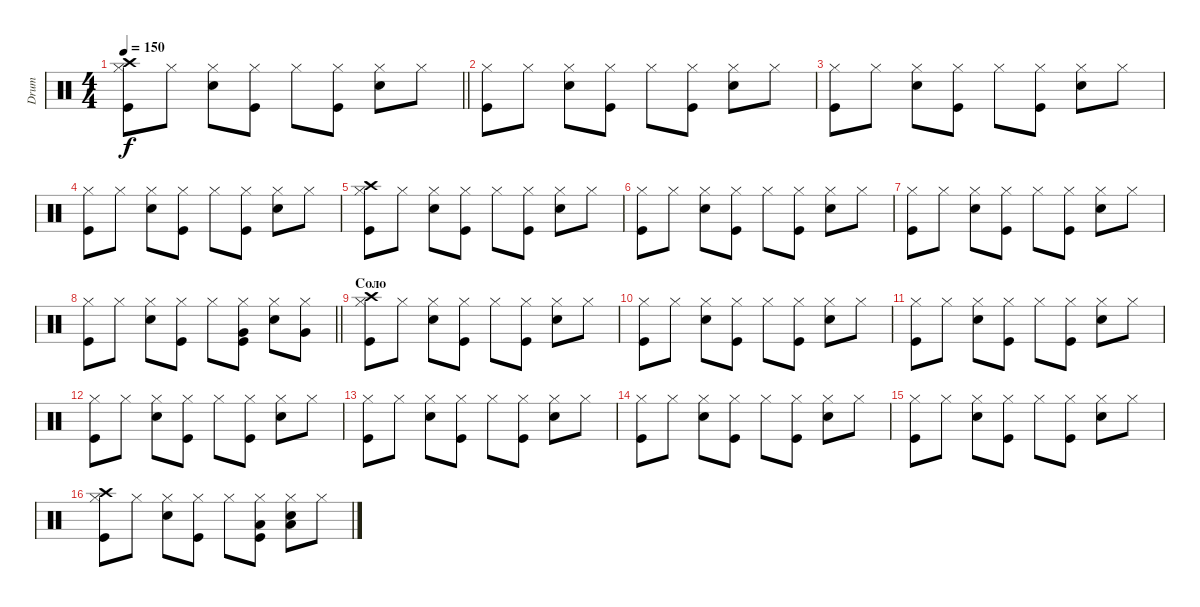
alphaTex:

\track ("Drum" "Drum") {instrument percussion}
\staff {score}
\articulation defaults
\ts (4 4)
\tempo 150
\clef neutral
\barLineRight lightlight
\ks c
("Kick (hit)" "Hi-Hat (closed)" "Crash high (hit)").8{dy f} "Hi-Hat (closed)".8 ("Snare (hit) 2" "Hi-Hat (closed)").8 ("Kick (hit)" "Hi-Hat (closed)").8 "Hi-Hat (closed)".8 ("Kick (hit)" "Hi-Hat (closed)").8 ("Snare (hit) 2" "Hi-Hat (closed)").8 "Hi-Hat (closed)".8 |
("Kick (hit)" "Hi-Hat (closed)").8 "Hi-Hat (closed)".8 ("Snare (hit) 2" "Hi-Hat (closed)").8 ("Kick (hit)" "Hi-Hat (closed)").8 "Hi-Hat (closed)".8 ("Kick (hit)" "Hi-Hat (closed)").8 ("Snare (hit) 2" "Hi-Hat (closed)").8 "Hi-Hat (closed)".8 |
("Kick (hit)" "Hi-Hat (closed)").8 "Hi-Hat (closed)".8 ("Snare (hit) 2" "Hi-Hat (closed)").8 ("Kick (hit)" "Hi-Hat (closed)").8 "Hi-Hat (closed)".8 ("Kick (hit)" "Hi-Hat (closed)").8 ("Snare (hit) 2" "Hi-Hat (closed)").8 "Hi-Hat (closed)".8 |
("Kick (hit)" "Hi-Hat (closed)").8 "Hi-Hat (closed)".8 ("Snare (hit) 2" "Hi-Hat (closed)").8 ("Kick (hit)" "Hi-Hat (closed)").8 "Hi-Hat (closed)".8 ("Kick (hit)" "Hi-Hat (closed)").8 ("Snare (hit) 2" "Hi-Hat (closed)").8 "Hi-Hat (closed)".8 |
("Kick (hit)" "Hi-Hat (closed)" "Crash high (hit)").8 "Hi-Hat (closed)".8 ("Snare (hit) 2" "Hi-Hat (closed)").8 ("Kick (hit)" "Hi-Hat (closed)").8 "Hi-Hat (closed)".8 ("Kick (hit)" "Hi-Hat (closed)").8 ("Snare (hit) 2" "Hi-Hat (closed)").8 "Hi-Hat (closed)".8 |
("Kick (hit)" "Hi-Hat (closed)").8 "Hi-Hat (closed)".8 ("Snare (hit) 2" "Hi-Hat (closed)").8 ("Kick (hit)" "Hi-Hat (closed)").8 "Hi-Hat (closed)".8 ("Kick (hit)" "Hi-Hat (closed)").8 ("Snare (hit) 2" "Hi-Hat (closed)").8 "Hi-Hat (closed)".8 |
("Kick (hit)" "Hi-Hat (closed)").8 "Hi-Hat (closed)".8 ("Snare (hit) 2" "Hi-Hat (closed)").8 ("Kick (hit)" "Hi-Hat (closed)").8 "Hi-Hat (closed)".8 ("Kick (hit)" "Hi-Hat (closed)").8 ("Snare (hit) 2" "Hi-Hat (closed)").8 "Hi-Hat (closed)".8 |
\barLineRight lightlight
("Kick (hit)" "Hi-Hat (closed)").8 "Hi-Hat (closed)".8 ("Snare (hit) 2" "Hi-Hat (closed)").8 ("Kick (hit)" "Hi-Hat (closed)").8 "Hi-Hat (closed)".8 ("Kick (hit)" "Hi-Hat (closed)" "Very Low Tom (hit)").8 ("Snare (hit) 2" "Hi-Hat (closed)").8 ("Hi-Hat (closed)" "Very Low Tom (hit)").8 |
\section ("" "Соло")
("Kick (hit)" "Hi-Hat (closed)" "Crash high (hit)").8 "Hi-Hat (closed)".8 ("Snare (hit) 2" "Hi-Hat (closed)").8 ("Kick (hit)" "Hi-Hat (closed)").8 "Hi-Hat (closed)".8 ("Kick (hit)" "Hi-Hat (closed)").8 ("Snare (hit) 2" "Hi-Hat (closed)").8 "Hi-Hat (closed)".8 |
("Kick (hit)" "Hi-Hat (closed)").8 "Hi-Hat (closed)".8 ("Snare (hit) 2" "Hi-Hat (closed)").8 ("Kick (hit)" "Hi-Hat (closed)").8 "Hi-Hat (closed)".8 ("Kick (hit)" "Hi-Hat (closed)").8 ("Snare (hit) 2" "Hi-Hat (closed)").8 "Hi-Hat (closed)".8 |
("Kick (hit)" "Hi-Hat (closed)").8 "Hi-Hat (closed)".8 ("Snare (hit) 2" "Hi-Hat (closed)").8 ("Kick (hit)" "Hi-Hat (closed)").8 "Hi-Hat (closed)".8 ("Kick (hit)" "Hi-Hat (closed)").8 ("Snare (hit) 2" "Hi-Hat (closed)").8 "Hi-Hat (closed)".8 |
("Kick (hit)" "Hi-Hat (closed)").8 "Hi-Hat (closed)".8 ("Snare (hit) 2" "Hi-Hat (closed)").8 ("Kick (hit)" "Hi-Hat (closed)").8 "Hi-Hat (closed)".8 ("Kick (hit)" "Hi-Hat (closed)").8 ("Snare (hit) 2" "Hi-Hat (closed)").8 "Hi-Hat (closed)".8 |
("Kick (hit)" "Hi-Hat (closed)").8 "Hi-Hat (closed)".8 ("Snare (hit) 2" "Hi-Hat (closed)").8 ("Kick (hit)" "Hi-Hat (closed)").8 "Hi-Hat (closed)".8 ("Kick (hit)" "Hi-Hat (closed)").8 ("Snare (hit) 2" "Hi-Hat (closed)").8 "Hi-Hat (closed)".8 |
("Kick (hit)" "Hi-Hat (closed)").8 "Hi-Hat (closed)".8 ("Snare (hit) 2" "Hi-Hat (closed)").8 ("Kick (hit)" "Hi-Hat (closed)").8 "Hi-Hat (closed)".8 ("Kick (hit)" "Hi-Hat (closed)").8 ("Snare (hit) 2" "Hi-Hat (closed)").8 "Hi-Hat (closed)".8 |
("Kick (hit)" "Hi-Hat (closed)").8 "Hi-Hat (closed)".8 ("Snare (hit) 2" "Hi-Hat (closed)").8 ("Kick (hit)" "Hi-Hat (closed)").8 "Hi-Hat (closed)".8 ("Kick (hit)" "Hi-Hat (closed)").8 ("Snare (hit) 2" "Hi-Hat (closed)").8 "Hi-Hat (closed)".8 |
("Kick (hit)" "Hi-Hat (closed)" "Crash high (hit)").8 "Hi-Hat (closed)".8 ("Snare (hit) 2" "Hi-Hat (closed)").8 ("Kick (hit)" "Hi-Hat (closed)").8 "Hi-Hat (closed)".8 ("Kick (hit)" "Hi-Hat (closed)" "Low Floor Tom (hit)").8 ("Snare (hit) 2" "Hi-Hat (closed)" "Low Floor Tom (hit)").8 "Hi-Hat (closed)".8
